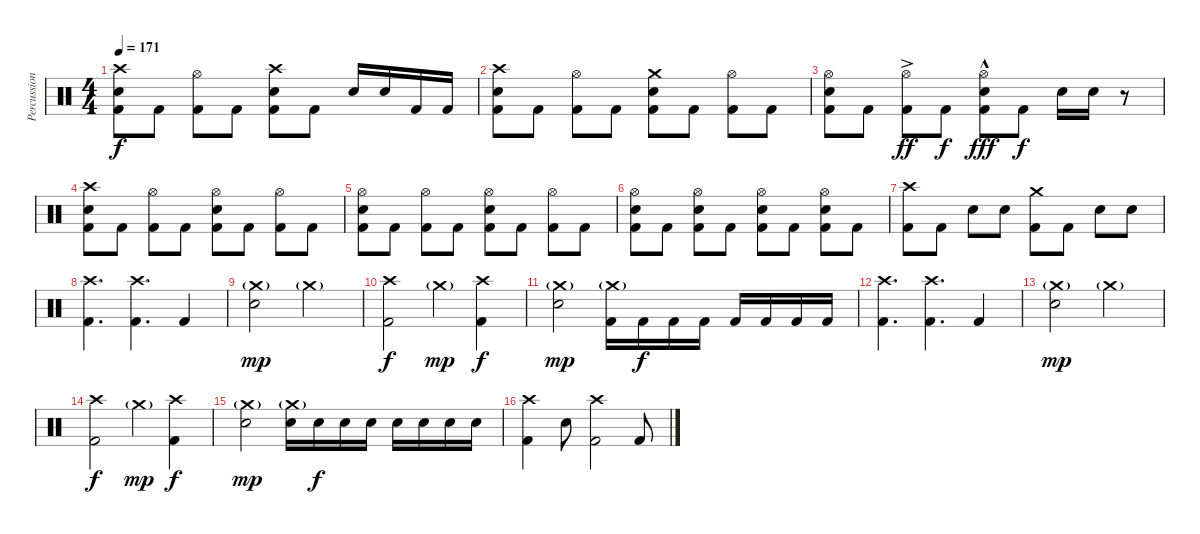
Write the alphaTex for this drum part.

\track ("Percussion" "Percussion") {instrument percussion}
\staff {score}
\articulation defaults
\ts (4 4)
\tempo 171
\clef neutral
\ks c
("Crash high (hit)" "Electric Snare (hit)" "Kick (hit) 2").8{dy f} "Kick (hit) 2".8 ("Hi-Hat (open)" "Kick (hit) 2").8 "Kick (hit) 2".8 ("Crash high (hit)" "Electric Snare (hit)" "Kick (hit) 2").8 "Kick (hit) 2".8 "Electric Snare (hit)".16 "Electric Snare (hit)".16 "Kick (hit) 2".16 "Kick (hit) 2".16 |
("Crash high (hit)" "Electric Snare (hit)" "Kick (hit) 2").8 "Kick (hit) 2".8 ("Hi-Hat (open)" "Kick (hit) 2").8 "Kick (hit) 2".8 ("Crash medium (hit)" "Electric Snare (hit)" "Kick (hit) 2").8 "Kick (hit) 2".8 ("Hi-Hat (open)" "Kick (hit) 2").8 "Kick (hit) 2".8 |
("Hi-Hat (open)" "Electric Snare (hit)" "Kick (hit) 2").8 "Kick (hit) 2".8 ("Hi-Hat (open)"{ac} "Kick (hit) 2").8{dy ff} "Kick (hit) 2".8{dy f} ("Hi-Hat (open)"{hac} "Electric Snare (hit)" "Kick (hit) 2").8{dy fff} "Kick (hit) 2".8{dy f} "Electric Snare (hit)".16 "Electric Snare (hit)".16 r.8 |
("Crash high (hit)" "Electric Snare (hit)" "Kick (hit) 2").8 "Kick (hit) 2".8 ("Hi-Hat (open)" "Kick (hit) 2").8 "Kick (hit) 2".8 ("Hi-Hat (open)" "Electric Snare (hit)" "Kick (hit) 2").8 "Kick (hit) 2".8 ("Hi-Hat (open)" "Kick (hit) 2").8 "Kick (hit) 2".8 |
("Hi-Hat (open)" "Electric Snare (hit)" "Kick (hit) 2").8 "Kick (hit) 2".8 ("Hi-Hat (open)" "Kick (hit) 2").8 "Kick (hit) 2".8 ("Hi-Hat (open)" "Electric Snare (hit)" "Kick (hit) 2").8 "Kick (hit) 2".8 ("Hi-Hat (open)" "Kick (hit) 2").8 "Kick (hit) 2".8 |
("Hi-Hat (open)" "Electric Snare (hit)" "Kick (hit) 2").8 "Kick (hit) 2".8 ("Hi-Hat (open)" "Electric Snare (hit)" "Kick (hit) 2").8 "Kick (hit) 2".8 ("Hi-Hat (open)" "Electric Snare (hit)" "Kick (hit) 2").8 "Kick (hit) 2".8 ("Hi-Hat (open)" "Electric Snare (hit)" "Kick (hit) 2").8 "Kick (hit) 2".8 |
("Crash high (hit)" "Kick (hit) 2").8 "Kick (hit) 2".8 "Electric Snare (hit)".8 "Electric Snare (hit)".8 ("Crash medium (hit)" "Kick (hit) 2").8 "Kick (hit) 2".8 "Electric Snare (hit)".8 "Electric Snare (hit)".8 |
("Crash high (hit)" "Kick (hit) 2").4{d} ("Crash high (hit)" "Kick (hit) 2").4{d} "Kick (hit) 2".4 |
("Crash medium (hit)"{g} "Electric Snare (hit)").2{dy mp} "Crash medium (hit)"{g}.2 |
("Crash high (hit)" "Kick (hit) 2").2{dy f} "Crash medium (hit)"{g}.4{dy mp} ("Crash high (hit)" "Kick (hit) 2").4{dy f} |
("Crash medium (hit)"{g} "Electric Snare (hit)").2{dy mp} ("Crash medium (hit)"{g} "Kick (hit) 2").16 "Kick (hit) 2".16{dy f} "Kick (hit) 2".16 "Kick (hit) 2".16 "Kick (hit) 2".16 "Kick (hit) 2".16 "Kick (hit) 2".16 "Kick (hit) 2".16 |
("Crash high (hit)" "Kick (hit) 2").4{d} ("Crash high (hit)" "Kick (hit) 2").4{d} "Kick (hit) 2".4 |
("Crash medium (hit)"{g} "Electric Snare (hit)").2{dy mp} "Crash medium (hit)"{g}.2 |
("Crash high (hit)" "Kick (hit) 2").2{dy f} "Crash medium (hit)"{g}.4{dy mp} ("Crash high (hit)" "Kick (hit) 2").4{dy f} |
("Crash medium (hit)"{g} "Electric Snare (hit)").2{dy mp} ("Crash medium (hit)"{g} "Electric Snare (hit)").16 "Electric Snare (hit)".16{dy f} "Electric Snare (hit)".16 "Electric Snare (hit)".16 "Electric Snare (hit)".16 "Electric Snare (hit)".16 "Electric Snare (hit)".16 "Electric Snare (hit)".16 |
("Crash high (hit)" "Kick (hit) 2").4 "Electric Snare (hit)".8 ("Crash high (hit)" "Kick (hit) 2").2 "Kick (hit) 2".8
